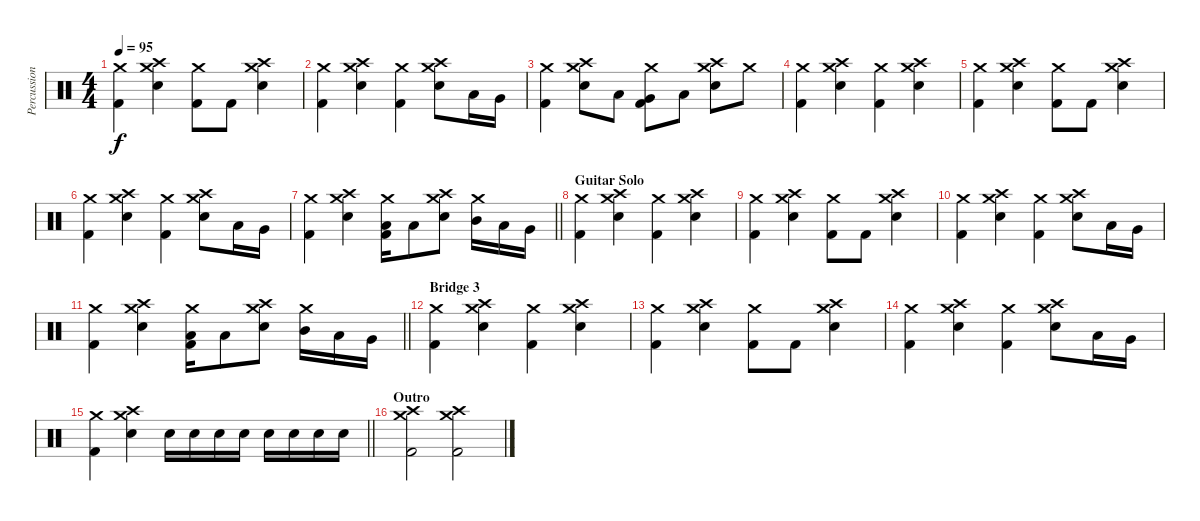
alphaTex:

\track ("Percussion" "Percussion") {instrument percussion}
\staff {score}
\articulation defaults
\ts (4 4)
\tempo 95
\clef neutral
\ks c
("Crash medium (hit)" "Kick (hit) 2").4{dy f} ("Crash high (hit)" "Crash medium (hit)" "Snare (hit) 2").4 ("Crash medium (hit)" "Kick (hit) 2").8 "Kick (hit) 2".8 ("Crash high (hit)" "Crash medium (hit)" "Snare (hit) 2").4 |
("Crash medium (hit)" "Kick (hit) 2").4 ("Crash high (hit)" "Crash medium (hit)" "Snare (hit) 2").4 ("Crash medium (hit)" "Kick (hit) 2").4 ("Crash high (hit)" "Crash medium (hit)" "Snare (hit) 2").8 "Low Tom (hit)".16 "Very Low Tom (hit)".16 |
("Crash medium (hit)" "Kick (hit) 2").4 ("Crash high (hit)" "Crash medium (hit)" "Snare (hit) 2").8 "Low Tom (hit)".8 ("Crash medium (hit)" "Very Low Tom (hit)" "Kick (hit) 2").8 "Low Floor Tom (hit)".8 ("Crash high (hit)" "Crash medium (hit)" "Snare (hit) 2").8 "Crash medium (hit)".8 |
("Crash medium (hit)" "Kick (hit) 2").4 ("Crash high (hit)" "Crash medium (hit)" "Snare (hit) 2").4 ("Crash medium (hit)" "Kick (hit) 2").4 ("Crash high (hit)" "Crash medium (hit)" "Snare (hit) 2").4 |
("Crash medium (hit)" "Kick (hit) 2").4 ("Crash high (hit)" "Crash medium (hit)" "Snare (hit) 2").4 ("Crash medium (hit)" "Kick (hit) 2").8 "Kick (hit) 2".8 ("Crash high (hit)" "Crash medium (hit)" "Snare (hit) 2").4 |
("Crash medium (hit)" "Kick (hit) 2").4 ("Crash high (hit)" "Crash medium (hit)" "Snare (hit) 2").4 ("Crash medium (hit)" "Kick (hit) 2").4 ("Crash high (hit)" "Crash medium (hit)" "Snare (hit) 2").8 "Low Tom (hit)".16 "Very Low Tom (hit)".16 |
\barLineRight lightlight
("Crash medium (hit)" "Kick (hit) 2").4 ("Crash high (hit)" "Crash medium (hit)" "Snare (hit) 2").4 ("Crash medium (hit)" "Low Tom (hit)" "Kick (hit) 2").16 "Low Floor Tom (hit)".8 ("Crash medium (hit)" "Crash high (hit)" "Snare (hit) 2").8 ("Crash medium (hit)" "Mid Tom (hit)").16 "Low Tom (hit)".16 "Very Low Tom (hit)".16 |
\section ("" "Guitar Solo")
("Crash medium (hit)" "Kick (hit) 2").4 ("Crash high (hit)" "Crash medium (hit)" "Snare (hit) 2").4 ("Crash medium (hit)" "Kick (hit) 2").4 ("Crash high (hit)" "Crash medium (hit)" "Snare (hit) 2").4 |
("Crash medium (hit)" "Kick (hit) 2").4 ("Crash high (hit)" "Crash medium (hit)" "Snare (hit) 2").4 ("Crash medium (hit)" "Kick (hit) 2").8 "Kick (hit) 2".8 ("Crash high (hit)" "Crash medium (hit)" "Snare (hit) 2").4 |
("Crash medium (hit)" "Kick (hit) 2").4 ("Crash high (hit)" "Crash medium (hit)" "Snare (hit) 2").4 ("Crash medium (hit)" "Kick (hit) 2").4 ("Crash high (hit)" "Crash medium (hit)" "Snare (hit) 2").8 "Low Tom (hit)".16 "Very Low Tom (hit)".16 |
\barLineRight lightlight
("Crash medium (hit)" "Kick (hit) 2").4 ("Crash high (hit)" "Crash medium (hit)" "Snare (hit) 2").4 ("Crash medium (hit)" "Low Tom (hit)" "Kick (hit) 2").16 "Low Floor Tom (hit)".8 ("Crash medium (hit)" "Crash high (hit)" "Snare (hit) 2").8 ("Crash medium (hit)" "Mid Tom (hit)").16 "Low Tom (hit)".16 "Very Low Tom (hit)".16 |
\section ("" "Bridge 3")
("Crash medium (hit)" "Kick (hit) 2").4 ("Crash high (hit)" "Crash medium (hit)" "Snare (hit) 2").4 ("Crash medium (hit)" "Kick (hit) 2").4 ("Crash high (hit)" "Crash medium (hit)" "Snare (hit) 2").4 |
("Crash medium (hit)" "Kick (hit) 2").4 ("Crash high (hit)" "Crash medium (hit)" "Snare (hit) 2").4 ("Crash medium (hit)" "Kick (hit) 2").8 "Kick (hit) 2".8 ("Crash high (hit)" "Crash medium (hit)" "Snare (hit) 2").4 |
("Crash medium (hit)" "Kick (hit) 2").4 ("Crash high (hit)" "Crash medium (hit)" "Snare (hit) 2").4 ("Crash medium (hit)" "Kick (hit) 2").4 ("Crash high (hit)" "Crash medium (hit)" "Snare (hit) 2").8 "Low Tom (hit)".16 "Very Low Tom (hit)".16 |
\barLineRight lightlight
("Crash medium (hit)" "Kick (hit) 2").4 ("Crash high (hit)" "Crash medium (hit)" "Snare (hit) 2").4 "Snare (hit) 2".16 "Snare (hit) 2".16 "Snare (hit) 2".16 "Snare (hit) 2".16 "Snare (hit) 2".16 "Snare (hit) 2".16 "Snare (hit) 2".16 "Snare (hit) 2".16 |
\section ("" "Outro")
("Crash high (hit)" "Crash medium (hit)" "Kick (hit) 2").2 ("Crash high (hit)" "Crash medium (hit)" "Kick (hit) 2").2
